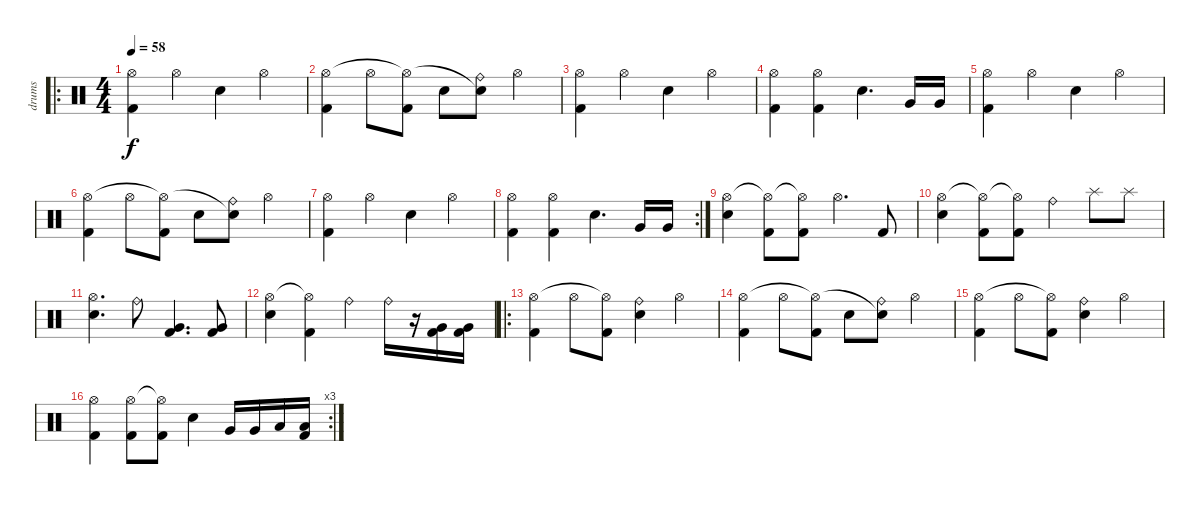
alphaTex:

\track ("drums" "drums") {instrument percussion}
\staff {score}
\articulation defaults
\ro
\ts (4 4)
\tempo 58
\clef neutral
\ks c
("Kick (hit) 2" "Hi-Hat (open)").4{dy f} "Hi-Hat (open)".4 "Snare (hit) 2".4 "Hi-Hat (open)".4 |
("Kick (hit) 2" "Hi-Hat (open)").4 "Hi-Hat (open)".8 ("Kick (hit) 2" "Hi-Hat (open)"{t}).8 "Snare (hit) 2".8 ("Ride (bell)" "Snare (hit) 2"{t}).8 "Hi-Hat (open)".4 |
("Kick (hit) 2" "Hi-Hat (open)").4 "Hi-Hat (open)".4 "Snare (hit) 2".4 "Hi-Hat (open)".4 |
("Kick (hit) 2" "Hi-Hat (open)").4 ("Kick (hit) 2" "Hi-Hat (open)").4 "Snare (hit) 2".4{d} "Very Low Tom (hit)".16 "Very Low Tom (hit)".16 |
("Kick (hit) 2" "Hi-Hat (open)").4 "Hi-Hat (open)".4 "Snare (hit) 2".4 "Hi-Hat (open)".4 |
("Kick (hit) 2" "Hi-Hat (open)").4 "Hi-Hat (open)".8 ("Kick (hit) 2" "Hi-Hat (open)"{t}).8 "Snare (hit) 2".8 ("Ride (bell)" "Snare (hit) 2"{t}).8 "Hi-Hat (open)".4 |
("Kick (hit) 2" "Hi-Hat (open)").4 "Hi-Hat (open)".4 "Snare (hit) 2".4 "Hi-Hat (open)".4 |
\rc 2
("Kick (hit) 2" "Hi-Hat (open)").4 ("Kick (hit) 2" "Hi-Hat (open)").4 "Snare (hit) 2".4{d} "Very Low Tom (hit)".16 "Very Low Tom (hit)".16 |
("Hi-Hat (open)" "Snare (hit) 2").4 ("Hi-Hat (open)"{t} "Kick (hit) 2").8 ("Hi-Hat (open)"{t} "Kick (hit) 2").8 "Hi-Hat (open)".4{d} "Kick (hit) 2".8 |
("Hi-Hat (open)" "Snare (hit) 2").4 ("Hi-Hat (open)"{t} "Kick (hit) 2").8 ("Hi-Hat (open)"{t} "Kick (hit) 2").8 "Ride (bell)".4 "Splash (hit)".8 "Splash (hit)".8 |
("Hi-Hat (open)" "Snare (hit) 2").4{d} "Ride (bell)".8 ("Kick (hit) 2" "Very Low Tom (hit)").4{d} ("Kick (hit) 2" "Very Low Tom (hit)").8 |
("Hi-Hat (open)" "Snare (hit) 2").4 ("Hi-Hat (open)"{t} "Kick (hit) 2").4 "Ride (bell)".4 "Ride (bell)".16 r.16 ("Kick (hit) 2" "Very Low Tom (hit)").16 ("Kick (hit) 2" "Very Low Tom (hit)").16 |
\ro
("Kick (hit) 2" "Hi-Hat (open)").4 "Hi-Hat (open)".8 ("Kick (hit) 2" "Hi-Hat (open)"{t}).8 ("Ride (bell)" "Snare (hit) 2").4 "Hi-Hat (open)".4 |
("Kick (hit) 2" "Hi-Hat (open)").4 "Hi-Hat (open)".8 ("Kick (hit) 2" "Hi-Hat (open)"{t}).8 "Snare (hit) 2".8 ("Ride (bell)" "Snare (hit) 2"{t}).8 "Hi-Hat (open)".4 |
("Kick (hit) 2" "Hi-Hat (open)").4 "Hi-Hat (open)".8 ("Kick (hit) 2" "Hi-Hat (open)"{t}).8 ("Ride (bell)" "Snare (hit) 2").4 "Hi-Hat (open)".4 |
\rc 3
("Kick (hit) 2" "Hi-Hat (open)").4 ("Kick (hit) 2" "Hi-Hat (open)").8 ("Kick (hit) 2" "Hi-Hat (open)"{t}).8 "Snare (hit) 2".4 "Very Low Tom (hit)".16 "Very Low Tom (hit)".16 "Low Tom (hit)".16 ("Kick (hit) 2" "Low Tom (hit)").16
